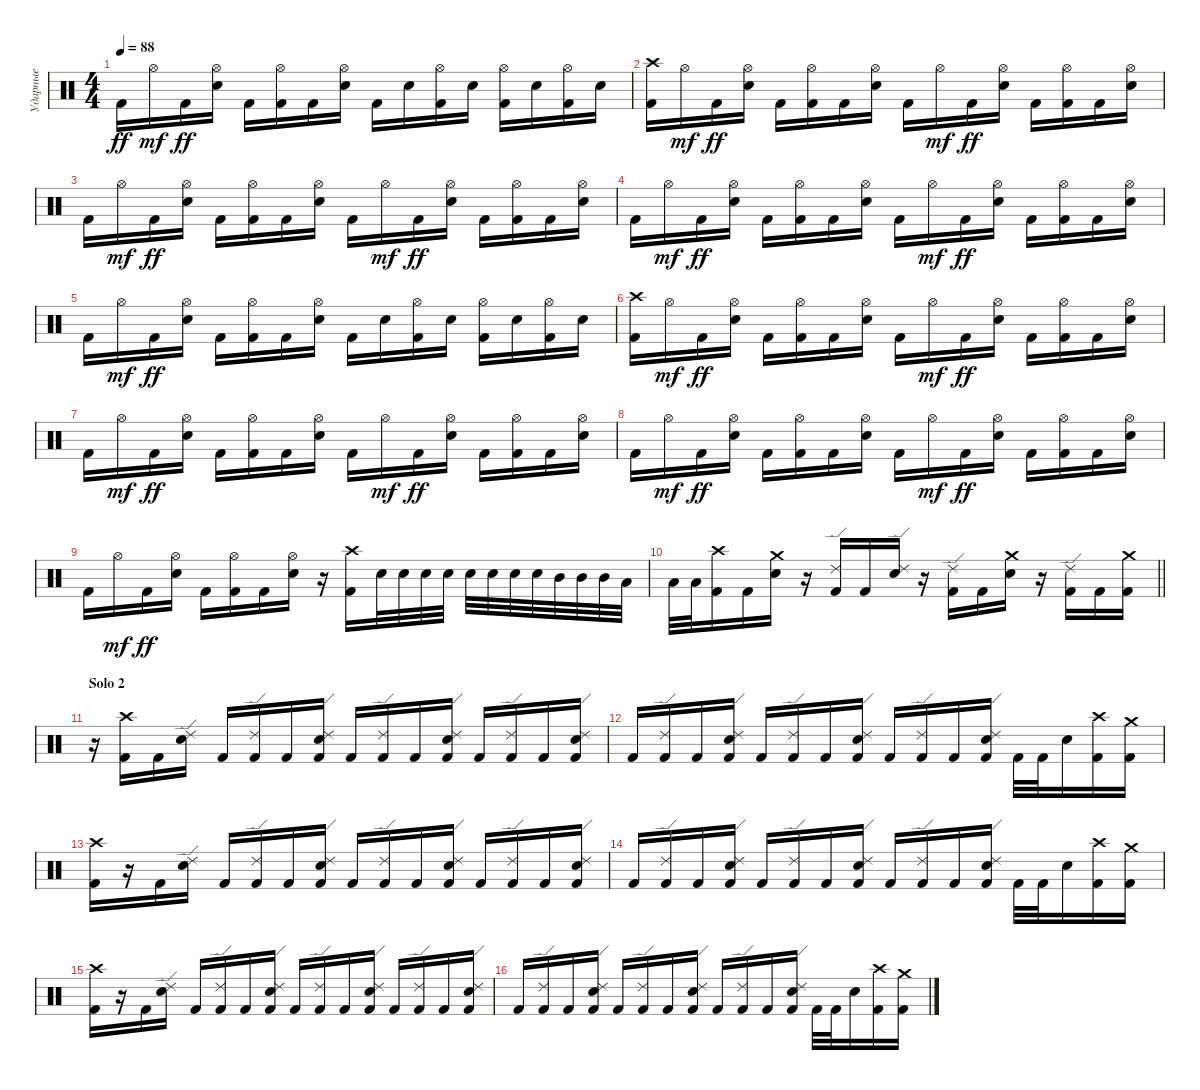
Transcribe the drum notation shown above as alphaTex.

\track ("Ударные" "Ударные") {instrument percussion}
\staff {score}
\articulation defaults
\ts (4 4)
\tempo 88
\clef neutral
\ks c "Kick (hit) 2".16{dy ff} "Hi-Hat (open)".16{dy mf} "Kick (hit) 2".16{dy ff}
("Hi-Hat (open)" "Snare (hit) 2").16 "Kick (hit) 2".16 ("Hi-Hat (open)" "Kick (hit) 2").16 "Kick (hit) 2".16 ("Hi-Hat (open)" "Snare (hit) 2").16 "Kick (hit) 2".16 "Snare (hit) 2".16 ("Hi-Hat (open)" "Kick (hit) 2").16 "Snare (hit) 2".16 ("Hi-Hat (open)" "Kick (hit) 2").16 "Snare (hit) 2".16 ("Hi-Hat (open)" "Kick (hit) 2").16 "Snare (hit) 2".16 |
("Crash high (hit)" "Kick (hit) 2").16 "Hi-Hat (open)".16{dy mf} "Kick (hit) 2".16{dy ff} ("Hi-Hat (open)" "Snare (hit) 2").16 "Kick (hit) 2".16 ("Hi-Hat (open)" "Kick (hit) 2").16 "Kick (hit) 2".16 ("Hi-Hat (open)" "Snare (hit) 2").16 "Kick (hit) 2".16 "Hi-Hat (open)".16{dy mf} "Kick (hit) 2".16{dy ff} ("Hi-Hat (open)" "Snare (hit) 2").16 "Kick (hit) 2".16 ("Hi-Hat (open)" "Kick (hit) 2").16 "Kick (hit) 2".16 ("Hi-Hat (open)" "Snare (hit) 2").16 |
"Kick (hit) 2".16 "Hi-Hat (open)".16{dy mf} "Kick (hit) 2".16{dy ff} ("Hi-Hat (open)" "Snare (hit) 2").16 "Kick (hit) 2".16 ("Hi-Hat (open)" "Kick (hit) 2").16 "Kick (hit) 2".16 ("Hi-Hat (open)" "Snare (hit) 2").16 "Kick (hit) 2".16 "Hi-Hat (open)".16{dy mf} "Kick (hit) 2".16{dy ff} ("Hi-Hat (open)" "Snare (hit) 2").16 "Kick (hit) 2".16 ("Hi-Hat (open)" "Kick (hit) 2").16 "Kick (hit) 2".16 ("Hi-Hat (open)" "Snare (hit) 2").16 |
"Kick (hit) 2".16 "Hi-Hat (open)".16{dy mf} "Kick (hit) 2".16{dy ff} ("Hi-Hat (open)" "Snare (hit) 2").16 "Kick (hit) 2".16 ("Hi-Hat (open)" "Kick (hit) 2").16 "Kick (hit) 2".16 ("Hi-Hat (open)" "Snare (hit) 2").16 "Kick (hit) 2".16 "Hi-Hat (open)".16{dy mf} "Kick (hit) 2".16{dy ff} ("Hi-Hat (open)" "Snare (hit) 2").16 "Kick (hit) 2".16 ("Hi-Hat (open)" "Kick (hit) 2").16 "Kick (hit) 2".16 ("Hi-Hat (open)" "Snare (hit) 2").16 |
"Kick (hit) 2".16 "Hi-Hat (open)".16{dy mf} "Kick (hit) 2".16{dy ff} ("Hi-Hat (open)" "Snare (hit) 2").16 "Kick (hit) 2".16 ("Hi-Hat (open)" "Kick (hit) 2").16 "Kick (hit) 2".16 ("Hi-Hat (open)" "Snare (hit) 2").16 "Kick (hit) 2".16 "Snare (hit) 2".16 ("Hi-Hat (open)" "Kick (hit) 2").16 "Snare (hit) 2".16 ("Hi-Hat (open)" "Kick (hit) 2").16 "Snare (hit) 2".16 ("Hi-Hat (open)" "Kick (hit) 2").16 "Snare (hit) 2".16 |
("Crash high (hit)" "Kick (hit) 2").16 "Hi-Hat (open)".16{dy mf} "Kick (hit) 2".16{dy ff} ("Hi-Hat (open)" "Snare (hit) 2").16 "Kick (hit) 2".16 ("Hi-Hat (open)" "Kick (hit) 2").16 "Kick (hit) 2".16 ("Hi-Hat (open)" "Snare (hit) 2").16 "Kick (hit) 2".16 "Hi-Hat (open)".16{dy mf} "Kick (hit) 2".16{dy ff} ("Hi-Hat (open)" "Snare (hit) 2").16 "Kick (hit) 2".16 ("Hi-Hat (open)" "Kick (hit) 2").16 "Kick (hit) 2".16 ("Hi-Hat (open)" "Snare (hit) 2").16 |
"Kick (hit) 2".16 "Hi-Hat (open)".16{dy mf} "Kick (hit) 2".16{dy ff} ("Hi-Hat (open)" "Snare (hit) 2").16 "Kick (hit) 2".16 ("Hi-Hat (open)" "Kick (hit) 2").16 "Kick (hit) 2".16 ("Hi-Hat (open)" "Snare (hit) 2").16 "Kick (hit) 2".16 "Hi-Hat (open)".16{dy mf} "Kick (hit) 2".16{dy ff} ("Hi-Hat (open)" "Snare (hit) 2").16 "Kick (hit) 2".16 ("Hi-Hat (open)" "Kick (hit) 2").16 "Kick (hit) 2".16 ("Hi-Hat (open)" "Snare (hit) 2").16 |
"Kick (hit) 2".16 "Hi-Hat (open)".16{dy mf} "Kick (hit) 2".16{dy ff} ("Hi-Hat (open)" "Snare (hit) 2").16 "Kick (hit) 2".16 ("Hi-Hat (open)" "Kick (hit) 2").16 "Kick (hit) 2".16 ("Hi-Hat (open)" "Snare (hit) 2").16 "Kick (hit) 2".16 "Hi-Hat (open)".16{dy mf} "Kick (hit) 2".16{dy ff} ("Hi-Hat (open)" "Snare (hit) 2").16 "Kick (hit) 2".16 ("Hi-Hat (open)" "Kick (hit) 2").16 "Kick (hit) 2".16 ("Hi-Hat (open)" "Snare (hit) 2").16 |
"Kick (hit) 2".16 "Hi-Hat (open)".16{dy mf} "Kick (hit) 2".16{dy ff} ("Hi-Hat (open)" "Snare (hit) 2").16 "Kick (hit) 2".16 ("Hi-Hat (open)" "Kick (hit) 2").16 "Kick (hit) 2".16 ("Hi-Hat (open)" "Snare (hit) 2").16 r.16 ("Crash high (hit)" "Kick (hit) 2").16 "Snare (hit) 2".32 "Snare (hit) 2".32 "Snare (hit) 2".32 "Snare (hit) 2".32 "Snare (hit) 2".32 "Snare (hit) 2".32 "Snare (hit) 2".32 "Snare (hit) 2".32 "Mid Tom (hit)".32 "Mid Tom (hit)".32 "Mid Tom (hit)".32 "Low Tom (hit)".32 |
\barLineRight lightlight "Low Tom (hit)".32 "Low Tom (hit)".32
("Crash high (hit)" "Kick (hit) 2").16 "Kick (hit) 2".16 ("Crash medium (hit)" "Snare (hit) 2").16 r.16 ("Ride (edge) 2" "Kick (hit) 2").16 "Kick (hit) 2".16 ("Ride (edge) 2" "Snare (hit) 2").16 r.16 ("Ride (edge) 2" "Kick (hit) 2").16 "Kick (hit) 2".16 ("Crash medium (hit)" "Snare (hit) 2").16 r.16 ("Ride (edge) 2" "Kick (hit) 2").16 "Kick (hit) 2".16 ("Crash medium (hit)" "Kick (hit) 2").16 |
\section ("" "Solo 2")
r.16 ("Crash high (hit)" "Kick (hit) 2").16 "Kick (hit) 2".16 ("Ride (edge) 2" "Snare (hit) 2").16 "Kick (hit) 2".16 ("Ride (edge) 2" "Kick (hit) 2").16 "Kick (hit) 2".16 ("Ride (edge) 2" "Snare (hit) 2" "Kick (hit) 2").16 "Kick (hit) 2".16 ("Ride (edge) 2" "Kick (hit) 2").16 "Kick (hit) 2".16 ("Ride (edge) 2" "Snare (hit) 2" "Kick (hit) 2").16 "Kick (hit) 2".16 ("Ride (edge) 2" "Kick (hit) 2").16 "Kick (hit) 2".16 ("Ride (edge) 2" "Snare (hit) 2" "Kick (hit) 2").16 |
"Kick (hit) 2".16 ("Ride (edge) 2" "Kick (hit) 2").16 "Kick (hit) 2".16 ("Ride (edge) 2" "Snare (hit) 2" "Kick (hit) 2").16 "Kick (hit) 2".16 ("Ride (edge) 2" "Kick (hit) 2").16 "Kick (hit) 2".16 ("Ride (edge) 2" "Snare (hit) 2" "Kick (hit) 2").16 "Kick (hit) 2".16 ("Ride (edge) 2" "Kick (hit) 2").16 "Kick (hit) 2".16 ("Ride (edge) 2" "Snare (hit) 2" "Kick (hit) 2").16 "Kick (hit) 2".32 "Kick (hit) 2".32 "Snare (hit) 2".16 ("Crash high (hit)" "Kick (hit) 2").16 ("Crash medium (hit)" "Kick (hit) 2").16 |
("Crash high (hit)" "Kick (hit) 2").16 r.16 "Kick (hit) 2".16 ("Ride (edge) 2" "Snare (hit) 2").16 "Kick (hit) 2".16 ("Ride (edge) 2" "Kick (hit) 2").16 "Kick (hit) 2".16 ("Ride (edge) 2" "Snare (hit) 2" "Kick (hit) 2").16 "Kick (hit) 2".16 ("Ride (edge) 2" "Kick (hit) 2").16 "Kick (hit) 2".16 ("Ride (edge) 2" "Snare (hit) 2" "Kick (hit) 2").16 "Kick (hit) 2".16 ("Ride (edge) 2" "Kick (hit) 2").16 "Kick (hit) 2".16 ("Ride (edge) 2" "Snare (hit) 2" "Kick (hit) 2").16 |
"Kick (hit) 2".16 ("Ride (edge) 2" "Kick (hit) 2").16 "Kick (hit) 2".16 ("Ride (edge) 2" "Snare (hit) 2" "Kick (hit) 2").16 "Kick (hit) 2".16 ("Ride (edge) 2" "Kick (hit) 2").16 "Kick (hit) 2".16 ("Ride (edge) 2" "Snare (hit) 2" "Kick (hit) 2").16 "Kick (hit) 2".16 ("Ride (edge) 2" "Kick (hit) 2").16 "Kick (hit) 2".16 ("Ride (edge) 2" "Snare (hit) 2" "Kick (hit) 2").16 "Kick (hit) 2".32 "Kick (hit) 2".32 "Snare (hit) 2".16 ("Crash high (hit)" "Kick (hit) 2").16 ("Crash medium (hit)" "Kick (hit) 2").16 |
("Crash high (hit)" "Kick (hit) 2").16 r.16 "Kick (hit) 2".16 ("Ride (edge) 2" "Snare (hit) 2").16 "Kick (hit) 2".16 ("Ride (edge) 2" "Kick (hit) 2").16 "Kick (hit) 2".16 ("Ride (edge) 2" "Snare (hit) 2" "Kick (hit) 2").16 "Kick (hit) 2".16 ("Ride (edge) 2" "Kick (hit) 2").16 "Kick (hit) 2".16 ("Ride (edge) 2" "Snare (hit) 2" "Kick (hit) 2").16 "Kick (hit) 2".16 ("Ride (edge) 2" "Kick (hit) 2").16 "Kick (hit) 2".16 ("Ride (edge) 2" "Snare (hit) 2" "Kick (hit) 2").16 |
"Kick (hit) 2".16 ("Ride (edge) 2" "Kick (hit) 2").16 "Kick (hit) 2".16 ("Ride (edge) 2" "Snare (hit) 2" "Kick (hit) 2").16 "Kick (hit) 2".16 ("Ride (edge) 2" "Kick (hit) 2").16 "Kick (hit) 2".16 ("Ride (edge) 2" "Snare (hit) 2" "Kick (hit) 2").16 "Kick (hit) 2".16 ("Ride (edge) 2" "Kick (hit) 2").16 "Kick (hit) 2".16 ("Ride (edge) 2" "Snare (hit) 2" "Kick (hit) 2").16 "Kick (hit) 2".32 "Kick (hit) 2".32 "Snare (hit) 2".16 ("Crash high (hit)" "Kick (hit) 2").16 ("Crash medium (hit)" "Kick (hit) 2").16
